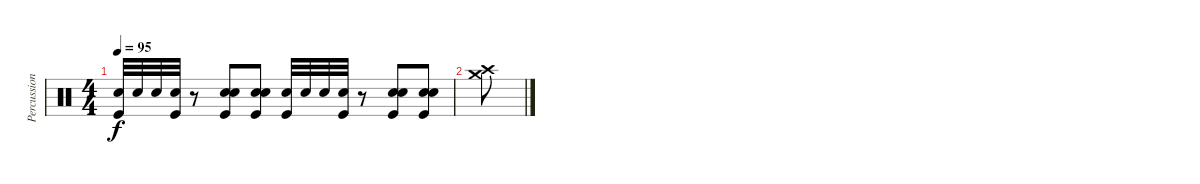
\track ("Percussion" "Percussion") {instrument percussion}
\staff {score}
\articulation defaults
\ts (4 4)
\tempo 95
\clef neutral
\ks c
("Electric Snare (hit)" "Kick (hit)").32{dy f} "Electric Snare (hit)".32 "Electric Snare (hit)".32 ("Electric Snare (hit)" "Kick (hit)").32 r.8 ("Electric Snare (hit)" "Electric Snare (hit)" "Kick (hit)").8 ("Electric Snare (hit)" "Electric Snare (hit)" "Kick (hit)").8 ("Electric Snare (hit)" "Kick (hit)").32 "Electric Snare (hit)".32 "Electric Snare (hit)".32 ("Electric Snare (hit)" "Kick (hit)").32 r.8 ("Electric Snare (hit)" "Electric Snare (hit)" "Kick (hit)").8 ("Electric Snare (hit)" "Electric Snare (hit)" "Kick (hit)").8 |
("Crash high (hit)" "Crash medium (hit)").8
